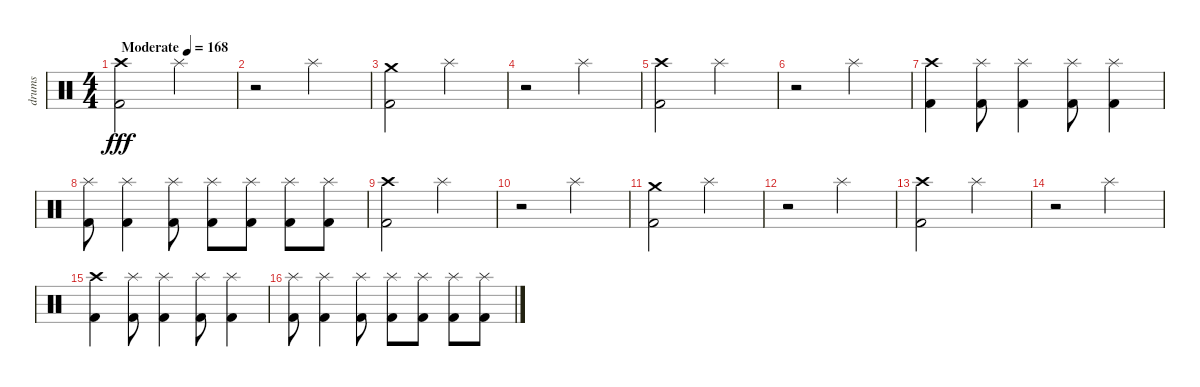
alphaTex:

\track ("drums" "drums") {instrument percussion}
\staff {score}
\articulation defaults
\ts (4 4)
\tempo (168 "Moderate")
\clef neutral
\ks c
("Crash high (hit)" "Kick (hit) 2").2{dy fff} "Splash (hit)".2 |
r.2 "Splash (hit)".2 |
("Crash medium (hit)" "Kick (hit) 2").2 "Splash (hit)".2 |
r.2 "Splash (hit)".2 |
("Crash high (hit)" "Kick (hit) 2").2 "Splash (hit)".2 |
r.2 "Splash (hit)".2 |
("Crash high (hit)" "Kick (hit) 2").4 ("Splash (hit)" "Kick (hit) 2").8 ("Splash (hit)" "Kick (hit) 2").4 ("Splash (hit)" "Kick (hit) 2").8 ("Splash (hit)" "Kick (hit) 2").4 |
("Splash (hit)" "Kick (hit) 2").8 ("Splash (hit)" "Kick (hit) 2").4 ("Splash (hit)" "Kick (hit) 2").8 ("Splash (hit)" "Kick (hit) 2").8 ("Splash (hit)" "Kick (hit) 2").8 ("Splash (hit)" "Kick (hit) 2").8 ("Splash (hit)" "Kick (hit) 2").8 |
("Crash high (hit)" "Kick (hit) 2").2 "Splash (hit)".2 |
r.2 "Splash (hit)".2 |
("Crash medium (hit)" "Kick (hit) 2").2 "Splash (hit)".2 |
r.2 "Splash (hit)".2 |
("Crash high (hit)" "Kick (hit) 2").2 "Splash (hit)".2 |
r.2 "Splash (hit)".2 |
("Crash high (hit)" "Kick (hit) 2").4 ("Splash (hit)" "Kick (hit) 2").8 ("Splash (hit)" "Kick (hit) 2").4 ("Splash (hit)" "Kick (hit) 2").8 ("Splash (hit)" "Kick (hit) 2").4 |
("Splash (hit)" "Kick (hit) 2").8 ("Splash (hit)" "Kick (hit) 2").4 ("Splash (hit)" "Kick (hit) 2").8 ("Splash (hit)" "Kick (hit) 2").8 ("Splash (hit)" "Kick (hit) 2").8 ("Splash (hit)" "Kick (hit) 2").8 ("Splash (hit)" "Kick (hit) 2").8
